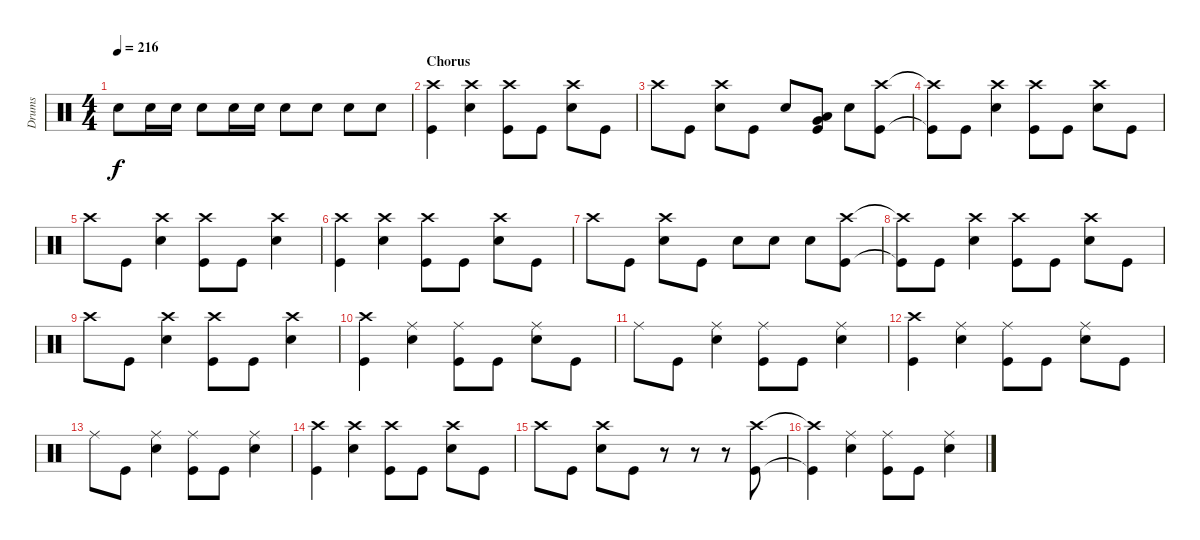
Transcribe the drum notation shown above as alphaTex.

\track ("Drums" "Drums") {instrument percussion}
\staff {score}
\articulation defaults
\ts (4 4)
\tempo 216
\clef neutral
\ks c "Snare (hit) 2".8{dy f} "Snare (hit) 2".16 "Snare (hit) 2".16 "Snare (hit) 2".8 "Snare (hit) 2".16 "Snare (hit) 2".16 "Snare (hit) 2".8 "Snare (hit) 2".8 "Snare (hit) 2".8 "Snare (hit) 2".8
|
\section ("" "Chorus")
("Crash high (hit)" "Kick (hit)").4 ("Crash high (hit)" "Snare (hit) 2").4 ("Crash high (hit)" "Kick (hit)").8 "Kick (hit)".8 ("Crash high (hit)" "Snare (hit) 2").8 "Kick (hit)".8 |
"Crash high (hit)".8 "Kick (hit)".8 ("Crash high (hit)" "Snare (hit) 2").8 "Kick (hit)".8 "Snare (hit) 2".8 ("Very Low Tom (hit)" "Low Floor Tom (hit)" "Kick (hit)").8 "Snare (hit) 2".8 ("Crash high (hit)" "Kick (hit)").8 |
("Crash high (hit)"{t} "Kick (hit)"{t}).8 "Kick (hit)".8 ("Crash high (hit)" "Snare (hit) 2").4 ("Crash high (hit)" "Kick (hit)").8 "Kick (hit)".8 ("Crash high (hit)" "Snare (hit) 2").8 "Kick (hit)".8 |
"Crash high (hit)".8 "Kick (hit)".8 ("Crash high (hit)" "Snare (hit) 2").4 ("Crash high (hit)" "Kick (hit)").8 "Kick (hit)".8 ("Crash high (hit)" "Snare (hit) 2").4 |
("Crash high (hit)" "Kick (hit)").4 ("Crash high (hit)" "Snare (hit) 2").4 ("Crash high (hit)" "Kick (hit)").8 "Kick (hit)".8 ("Crash high (hit)" "Snare (hit) 2").8 "Kick (hit)".8 |
"Crash high (hit)".8 "Kick (hit)".8 ("Crash high (hit)" "Snare (hit) 2").8 "Kick (hit)".8 "Snare (hit) 2".8 "Snare (hit) 2".8 "Snare (hit) 2".8 ("Crash high (hit)" "Kick (hit)").8 |
("Crash high (hit)"{t} "Kick (hit)"{t}).8 "Kick (hit)".8 ("Crash high (hit)" "Snare (hit) 2").4 ("Crash high (hit)" "Kick (hit)").8 "Kick (hit)".8 ("Crash high (hit)" "Snare (hit) 2").8 "Kick (hit)".8 |
"Crash high (hit)".8 "Kick (hit)".8 ("Crash high (hit)" "Snare (hit) 2").4 ("Crash high (hit)" "Kick (hit)").8 "Kick (hit)".8 ("Crash high (hit)" "Snare (hit) 2").4 |
("Crash high (hit)" "Kick (hit)").4 ("Ride (middle)" "Snare (hit) 2").4 ("Ride (middle)" "Kick (hit)").8 "Kick (hit)".8 ("Ride (middle)" "Snare (hit) 2").8 "Kick (hit)".8 |
"Ride (middle)".8 "Kick (hit)".8 ("Ride (middle)" "Snare (hit) 2").4 ("Ride (middle)" "Kick (hit)").8 "Kick (hit)".8 ("Ride (middle)" "Snare (hit) 2").4 |
("Crash high (hit)" "Kick (hit)").4 ("Ride (middle)" "Snare (hit) 2").4 ("Ride (middle)" "Kick (hit)").8 "Kick (hit)".8 ("Ride (middle)" "Snare (hit) 2").8 "Kick (hit)".8 |
"Ride (middle)".8 "Kick (hit)".8 ("Ride (middle)" "Snare (hit) 2").4 ("Ride (middle)" "Kick (hit)").8 "Kick (hit)".8 ("Ride (middle)" "Snare (hit) 2").4 |
("Crash high (hit)" "Kick (hit)").4 ("Crash high (hit)" "Snare (hit) 2").4 ("Crash high (hit)" "Kick (hit)").8 "Kick (hit)".8 ("Crash high (hit)" "Snare (hit) 2").8 "Kick (hit)".8 |
"Crash high (hit)".8 "Kick (hit)".8 ("Crash high (hit)" "Snare (hit) 2").8 "Kick (hit)".8 r.8 r.8 r.8 ("Crash high (hit)" "Kick (hit)").8 |
("Crash high (hit)"{t} "Kick (hit)"{t}).4 ("Ride (middle)" "Snare (hit) 2").4 ("Ride (middle)" "Kick (hit)").8 "Kick (hit)".8 ("Ride (middle)" "Snare (hit) 2").4
